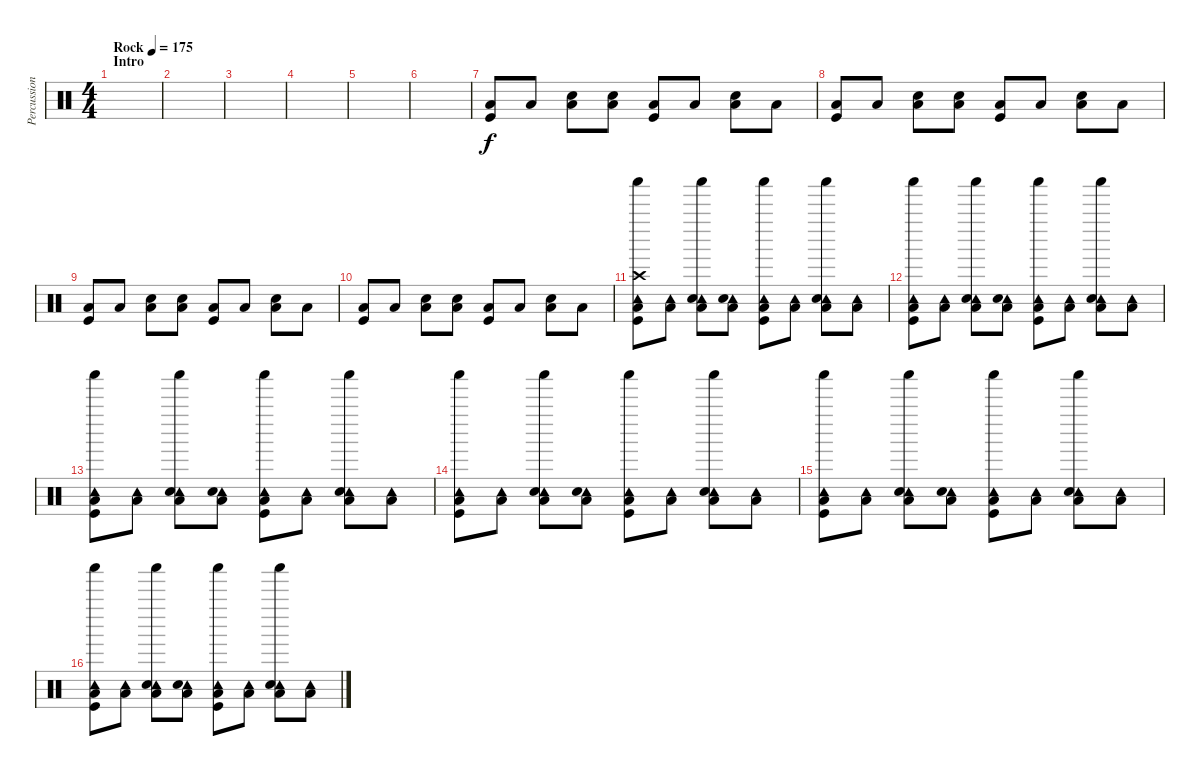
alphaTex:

\track ("Percussion" "Percussion") {instrument percussion}
\staff {score}
\articulation defaults
\ts (4 4)
\section ("" "Intro")
\tempo (175 "Rock")
\clef neutral
\ks c
|
|
|
|
|
|
("Low Floor Tom (hit)" "Kick (hit)").8 "Low Floor Tom (hit)".8 ("Snare (hit) 2" "Low Floor Tom (hit)").8 ("Snare (hit) 2" "Low Floor Tom (hit)").8 ("Low Floor Tom (hit)" "Kick (hit)").8 "Low Floor Tom (hit)".8 ("Snare (hit) 2" "Low Floor Tom (hit)").8 "Low Floor Tom (hit)".8 |
("Low Floor Tom (hit)" "Kick (hit)").8 "Low Floor Tom (hit)".8 ("Snare (hit) 2" "Low Floor Tom (hit)").8 ("Snare (hit) 2" "Low Floor Tom (hit)").8 ("Low Floor Tom (hit)" "Kick (hit)").8 "Low Floor Tom (hit)".8 ("Snare (hit) 2" "Low Floor Tom (hit)").8 "Low Floor Tom (hit)".8 |
("Low Floor Tom (hit)" "Kick (hit)").8 "Low Floor Tom (hit)".8 ("Snare (hit) 2" "Low Floor Tom (hit)").8 ("Snare (hit) 2" "Low Floor Tom (hit)").8 ("Low Floor Tom (hit)" "Kick (hit)").8 "Low Floor Tom (hit)".8 ("Snare (hit) 2" "Low Floor Tom (hit)").8 "Low Floor Tom (hit)".8 |
("Low Floor Tom (hit)" "Kick (hit)").8 "Low Floor Tom (hit)".8 ("Snare (hit) 2" "Low Floor Tom (hit)").8 ("Snare (hit) 2" "Low Floor Tom (hit)").8 ("Low Floor Tom (hit)" "Kick (hit)").8 "Low Floor Tom (hit)".8 ("Snare (hit) 2" "Low Floor Tom (hit)").8 "Low Floor Tom (hit)".8 |
("Tambourine (hit)" "Shaker (hit)" "Crash high (hit)" "Low Floor Tom (hit)" "Kick (hit)").8 ("Tambourine (hit)" "Low Floor Tom (hit)").8 ("Tambourine (hit)" "Shaker (hit)" "Snare (hit) 2" "Low Floor Tom (hit)").8 ("Tambourine (hit)" "Snare (hit) 2" "Low Floor Tom (hit)").8 ("Tambourine (hit)" "Shaker (hit)" "Low Floor Tom (hit)" "Kick (hit)").8 ("Tambourine (hit)" "Low Floor Tom (hit)").8 ("Tambourine (hit)" "Shaker (hit)" "Snare (hit) 2" "Low Floor Tom (hit)").8 ("Tambourine (hit)" "Low Floor Tom (hit)").8 |
("Tambourine (hit)" "Shaker (hit)" "Low Floor Tom (hit)" "Kick (hit)").8 ("Tambourine (hit)" "Low Floor Tom (hit)").8 ("Tambourine (hit)" "Shaker (hit)" "Snare (hit) 2" "Low Floor Tom (hit)").8 ("Tambourine (hit)" "Snare (hit) 2" "Low Floor Tom (hit)").8 ("Tambourine (hit)" "Shaker (hit)" "Low Floor Tom (hit)" "Kick (hit)").8 ("Tambourine (hit)" "Low Floor Tom (hit)").8 ("Tambourine (hit)" "Shaker (hit)" "Snare (hit) 2" "Low Floor Tom (hit)").8 ("Tambourine (hit)" "Low Floor Tom (hit)").8 |
("Tambourine (hit)" "Shaker (hit)" "Low Floor Tom (hit)" "Kick (hit)").8 ("Tambourine (hit)" "Low Floor Tom (hit)").8 ("Tambourine (hit)" "Shaker (hit)" "Snare (hit) 2" "Low Floor Tom (hit)").8 ("Tambourine (hit)" "Snare (hit) 2" "Low Floor Tom (hit)").8 ("Tambourine (hit)" "Shaker (hit)" "Low Floor Tom (hit)" "Kick (hit)").8 ("Tambourine (hit)" "Low Floor Tom (hit)").8 ("Tambourine (hit)" "Shaker (hit)" "Snare (hit) 2" "Low Floor Tom (hit)").8 ("Tambourine (hit)" "Low Floor Tom (hit)").8 |
("Tambourine (hit)" "Shaker (hit)" "Low Floor Tom (hit)" "Kick (hit)").8 ("Tambourine (hit)" "Low Floor Tom (hit)").8 ("Tambourine (hit)" "Shaker (hit)" "Snare (hit) 2" "Low Floor Tom (hit)").8 ("Tambourine (hit)" "Snare (hit) 2" "Low Floor Tom (hit)").8 ("Tambourine (hit)" "Shaker (hit)" "Low Floor Tom (hit)" "Kick (hit)").8 ("Tambourine (hit)" "Low Floor Tom (hit)").8 ("Tambourine (hit)" "Shaker (hit)" "Snare (hit) 2" "Low Floor Tom (hit)").8 ("Tambourine (hit)" "Low Floor Tom (hit)").8 |
("Tambourine (hit)" "Shaker (hit)" "Low Floor Tom (hit)" "Kick (hit)").8 ("Tambourine (hit)" "Low Floor Tom (hit)").8 ("Tambourine (hit)" "Shaker (hit)" "Snare (hit) 2" "Low Floor Tom (hit)").8 ("Tambourine (hit)" "Snare (hit) 2" "Low Floor Tom (hit)").8 ("Tambourine (hit)" "Shaker (hit)" "Low Floor Tom (hit)" "Kick (hit)").8 ("Tambourine (hit)" "Low Floor Tom (hit)").8 ("Tambourine (hit)" "Shaker (hit)" "Snare (hit) 2" "Low Floor Tom (hit)").8 ("Tambourine (hit)" "Low Floor Tom (hit)").8 |
("Tambourine (hit)" "Shaker (hit)" "Low Floor Tom (hit)" "Kick (hit)").8 ("Tambourine (hit)" "Low Floor Tom (hit)").8 ("Tambourine (hit)" "Shaker (hit)" "Snare (hit) 2" "Low Floor Tom (hit)").8 ("Tambourine (hit)" "Snare (hit) 2" "Low Floor Tom (hit)").8 ("Tambourine (hit)" "Shaker (hit)" "Low Floor Tom (hit)" "Kick (hit)").8 ("Tambourine (hit)" "Low Floor Tom (hit)").8 ("Tambourine (hit)" "Shaker (hit)" "Snare (hit) 2" "Low Floor Tom (hit)").8 ("Tambourine (hit)" "Low Floor Tom (hit)").8
